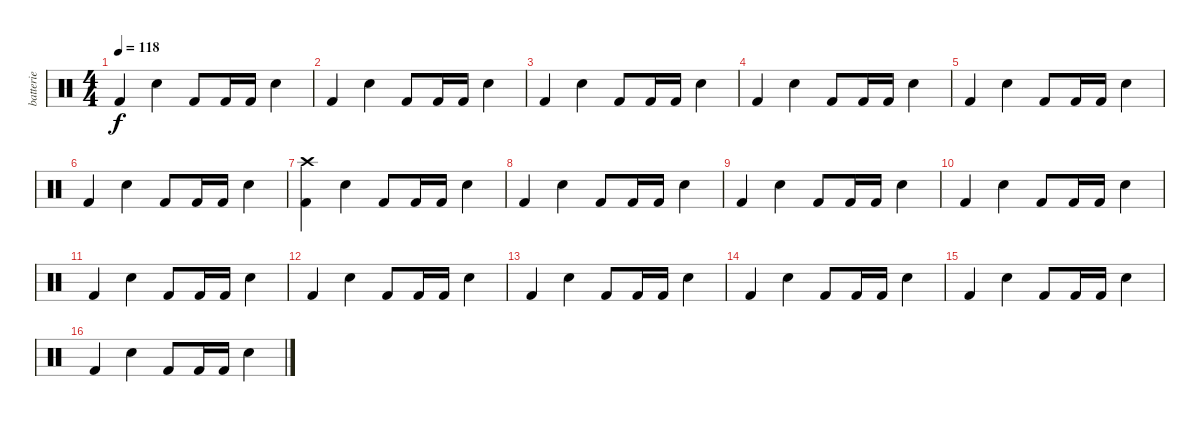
\track ("batterie" "batterie") {instrument percussion}
\staff {score}
\articulation defaults
\ts (4 4)
\tempo 118
\clef neutral
\ks c "Kick (hit) 2".4{dy f} "Electric Snare (hit)".4 "Kick (hit) 2".8 "Kick (hit) 2".16 "Kick (hit) 2".16 "Electric Snare (hit)".4
|
"Kick (hit) 2".4 "Electric Snare (hit)".4 "Kick (hit) 2".8 "Kick (hit) 2".16 "Kick (hit) 2".16 "Electric Snare (hit)".4 |
"Kick (hit) 2".4 "Electric Snare (hit)".4 "Kick (hit) 2".8 "Kick (hit) 2".16 "Kick (hit) 2".16 "Electric Snare (hit)".4 |
"Kick (hit) 2".4 "Electric Snare (hit)".4 "Kick (hit) 2".8 "Kick (hit) 2".16 "Kick (hit) 2".16 "Electric Snare (hit)".4 |
"Kick (hit) 2".4 "Electric Snare (hit)".4 "Kick (hit) 2".8 "Kick (hit) 2".16 "Kick (hit) 2".16 "Electric Snare (hit)".4 |
"Kick (hit) 2".4 "Electric Snare (hit)".4 "Kick (hit) 2".8 "Kick (hit) 2".16 "Kick (hit) 2".16 "Electric Snare (hit)".4 |
("Crash high (hit)" "Kick (hit) 2").4 "Electric Snare (hit)".4 "Kick (hit) 2".8 "Kick (hit) 2".16 "Kick (hit) 2".16 "Electric Snare (hit)".4 |
"Kick (hit) 2".4 "Electric Snare (hit)".4 "Kick (hit) 2".8 "Kick (hit) 2".16 "Kick (hit) 2".16 "Electric Snare (hit)".4 |
"Kick (hit) 2".4 "Electric Snare (hit)".4 "Kick (hit) 2".8 "Kick (hit) 2".16 "Kick (hit) 2".16 "Electric Snare (hit)".4 |
"Kick (hit) 2".4 "Electric Snare (hit)".4 "Kick (hit) 2".8 "Kick (hit) 2".16 "Kick (hit) 2".16 "Electric Snare (hit)".4 |
"Kick (hit) 2".4 "Electric Snare (hit)".4 "Kick (hit) 2".8 "Kick (hit) 2".16 "Kick (hit) 2".16 "Electric Snare (hit)".4 |
"Kick (hit) 2".4 "Electric Snare (hit)".4 "Kick (hit) 2".8 "Kick (hit) 2".16 "Kick (hit) 2".16 "Electric Snare (hit)".4 |
"Kick (hit) 2".4 "Electric Snare (hit)".4 "Kick (hit) 2".8 "Kick (hit) 2".16 "Kick (hit) 2".16 "Electric Snare (hit)".4 |
"Kick (hit) 2".4 "Electric Snare (hit)".4 "Kick (hit) 2".8 "Kick (hit) 2".16 "Kick (hit) 2".16 "Electric Snare (hit)".4 |
"Kick (hit) 2".4 "Electric Snare (hit)".4 "Kick (hit) 2".8 "Kick (hit) 2".16 "Kick (hit) 2".16 "Electric Snare (hit)".4 |
"Kick (hit) 2".4 "Electric Snare (hit)".4 "Kick (hit) 2".8 "Kick (hit) 2".16 "Kick (hit) 2".16 "Electric Snare (hit)".4
